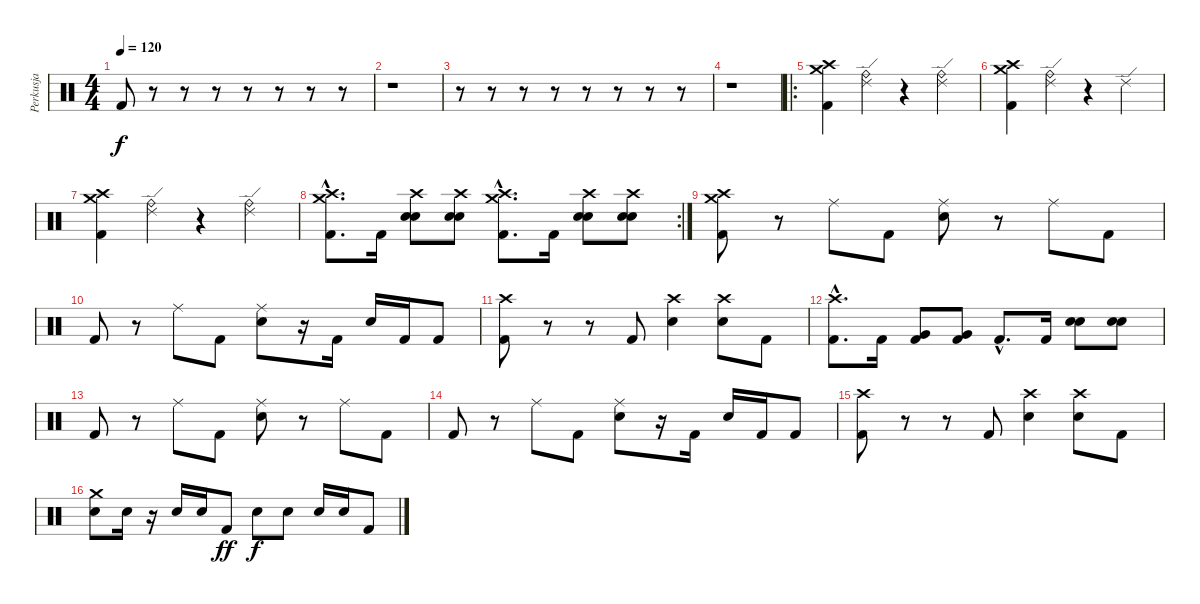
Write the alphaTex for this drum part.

\track ("Perkusja" "Perkusja") {instrument percussion}
\staff {score}
\articulation defaults
\ts (4 4)
\tempo 120
\clef neutral
\ks c "Kick (hit) 2".8{dy f}
r.8 r.8 r.8 r.8 r.8 r.8 r.8 |
r.1 |
r.8 r.8 r.8 r.8 r.8 r.8 r.8 r.8 |
r.1 |
\ro
("Crash medium (hit)" "Crash high (hit)" "Kick (hit) 2").4 ("Ride (edge) 2" "Ride (bell)").4 r.4 ("Ride (edge) 2" "Ride (bell)").4 |
("Crash medium (hit)" "Crash high (hit)" "Kick (hit) 2").4 ("Ride (edge) 2" "Ride (bell)").4 r.4 "Ride (edge) 2".4 |
("Crash medium (hit)" "Crash high (hit)" "Kick (hit) 2").4 ("Ride (edge) 2" "Ride (bell)").4 r.4 ("Ride (edge) 2" "Ride (bell)").4 |
\rc 2
("Crash medium (hit)"{hac} "Crash high (hit)"{hac} "Kick (hit) 2"{hac}).8{d} "Kick (hit) 2".16 ("Crash high (hit)" "Electric Snare (hit)" "Snare (hit) 2").8 ("Crash high (hit)" "Electric Snare (hit)" "Snare (hit) 2").8 ("Crash medium (hit)"{hac} "Crash high (hit)"{hac} "Kick (hit) 2"{hac}).8{d} "Kick (hit) 2".16 ("Crash high (hit)" "Electric Snare (hit)" "Snare (hit) 2").8 ("Crash high (hit)" "Electric Snare (hit)" "Snare (hit) 2").8 |
("Crash medium (hit)" "Crash high (hit)" "Kick (hit) 2").8 r.8 "Ride (middle)".8 "Kick (hit) 2".8 ("Ride (middle)" "Snare (hit) 2").8 r.8 "Ride (middle)".8 "Kick (hit) 2".8 |
"Kick (hit) 2".8 r.8 "Ride (middle)".8 "Kick (hit) 2".8 ("Ride (middle)" "Snare (hit) 2").8 r.16 "Kick (hit) 2".16 "Snare (hit) 2".16 "Kick (hit) 2".16 "Kick (hit) 2".8 |
("Crash high (hit)" "Kick (hit) 2").8 r.8 r.8 "Kick (hit) 2".8 ("Crash high (hit)" "Snare (hit) 2").4 ("Crash high (hit)" "Snare (hit) 2").8 "Kick (hit) 2".8 |
("Crash high (hit)"{hac} "Kick (hit) 2"{hac}).8{d} "Kick (hit) 2".16 ("Very Low Tom (hit)" "Kick (hit) 2").8 ("Very Low Tom (hit)" "Kick (hit) 2").8 "Kick (hit) 2"{hac}.8{d} "Kick (hit) 2".16 ("Electric Snare (hit)" "Snare (hit) 2").8 ("Electric Snare (hit)" "Snare (hit) 2").8 |
"Kick (hit) 2".8 r.8 "Ride (middle)".8 "Kick (hit) 2".8 ("Ride (middle)" "Snare (hit) 2").8 r.8 "Ride (middle)".8 "Kick (hit) 2".8 |
"Kick (hit) 2".8 r.8 "Ride (middle)".8 "Kick (hit) 2".8 ("Ride (middle)" "Snare (hit) 2").8 r.16 "Kick (hit) 2".16 "Snare (hit) 2".16 "Kick (hit) 2".16 "Kick (hit) 2".8 |
("Crash high (hit)" "Kick (hit) 2").8 r.8 r.8 "Kick (hit) 2".8 ("Crash high (hit)" "Snare (hit) 2").4 ("Crash high (hit)" "Snare (hit) 2").8 "Kick (hit) 2".8 |
("Crash medium (hit)" "Snare (hit) 2").8 "Snare (hit) 2".16 r.16 "Snare (hit) 2".16 "Snare (hit) 2".16 "Kick (hit) 2".8{dy ff} "Snare (hit) 2".8{dy f} "Snare (hit) 2".8 "Snare (hit) 2".16 "Snare (hit) 2".16 "Kick (hit) 2".8
